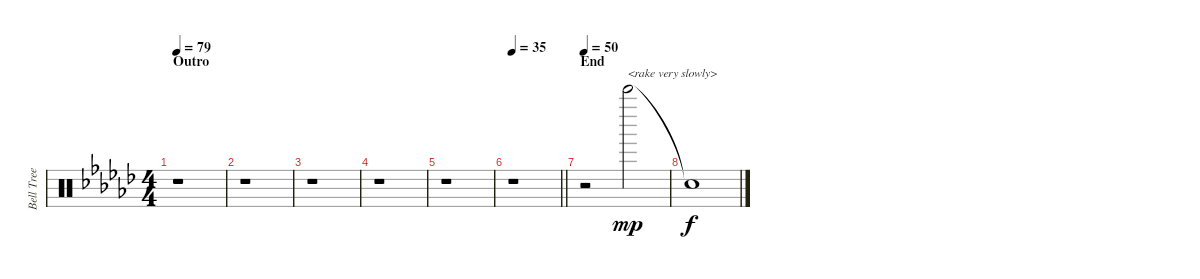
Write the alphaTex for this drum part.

\track ("Bell Tree" "Bell Tree") {instrument percussion}
\staff {score}
\articulation defaults
\ts (4 4)
\section ("" "Outro")
\tempo 79
\clef neutral
\ks gb
r.1{dy f} |
r.1 |
r.1 |
r.1 |
r.1 |
\tempo 35
\barLineRight lightlight
r.1 |
\section ("" "End")
\tempo 50
r.2 "Bell Tree (hit)".2{txt "<rake very slowly>" dy mp} |
"Snare (hit)"{t}.1{dy f}
